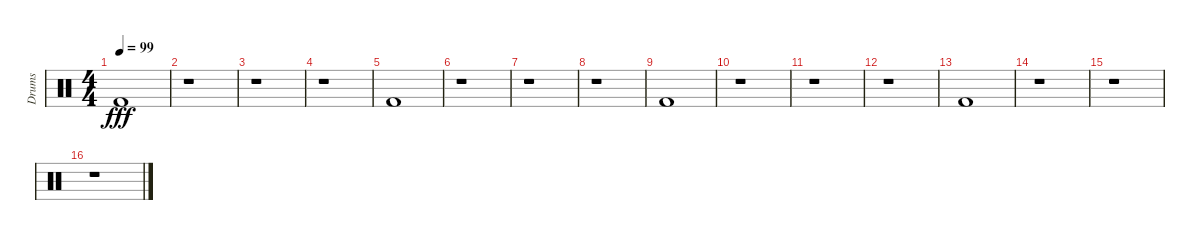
\track ("Drums" "Drums") {instrument percussion}
\staff {score}
\articulation defaults
\ts (4 4)
\tempo 99
\clef neutral
\ks c "Kick (hit) 2".1{dy fff}
|
r.1 |
r.1 |
r.1 |
"Kick (hit) 2".1 |
r.1 |
r.1 |
r.1 |
"Kick (hit) 2".1 |
r.1 |
r.1 |
r.1 |
"Kick (hit) 2".1 |
r.1 |
r.1 |
r.1
